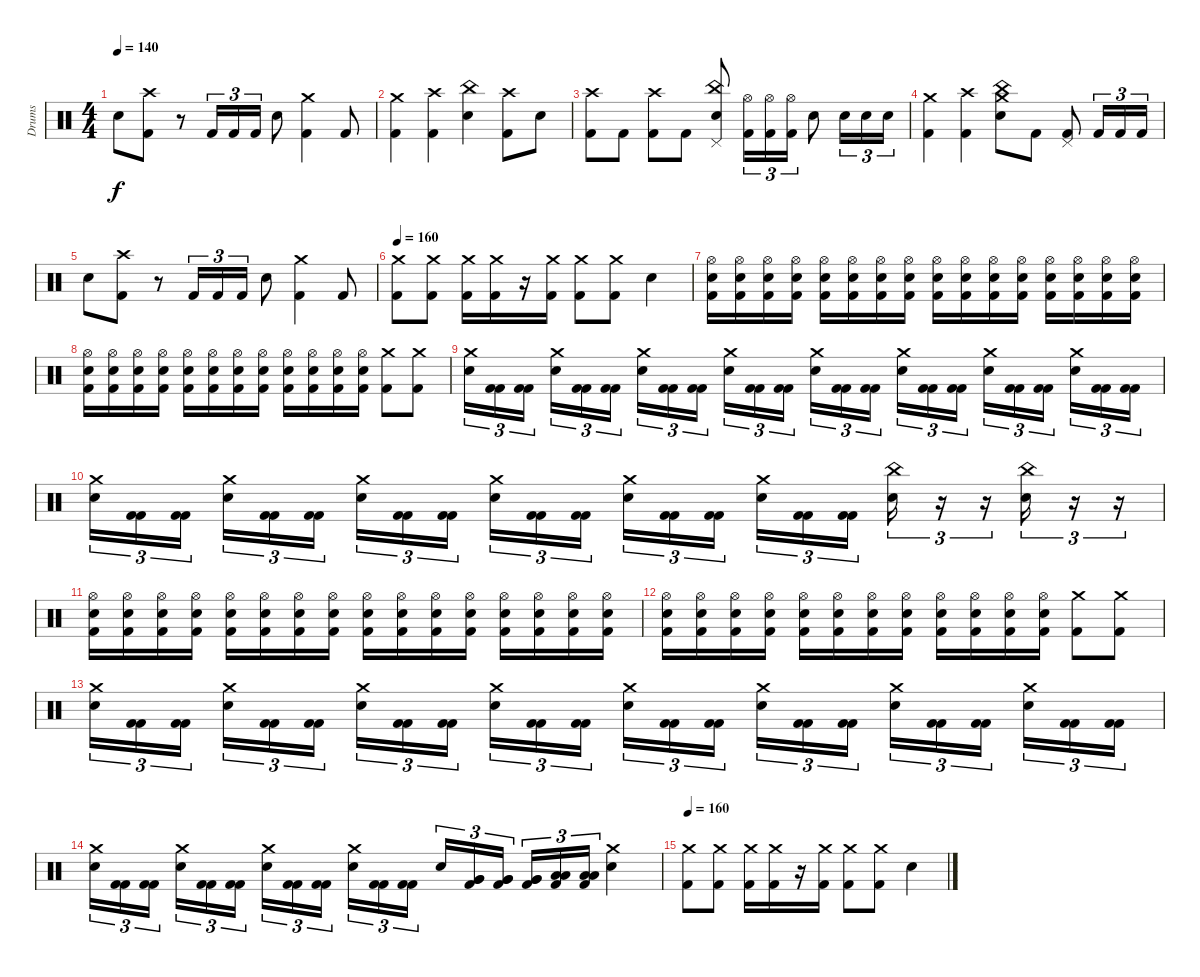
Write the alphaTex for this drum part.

\track ("Drums" "Drums") {instrument percussion}
\staff {score}
\articulation defaults
\ts (4 4)
\tempo 140
\clef neutral
\ks c "Electric Snare (hit)".8{dy f}
("Crash high (hit)" "Kick (hit) 2").8 r.8 "Kick (hit) 2".16{tu (3 2)} "Kick (hit) 2".16{tu (3 2)} "Kick (hit) 2".16{tu (3 2)} "Electric Snare (hit)".8 ("Crash medium (hit)" "Kick (hit) 2").4 "Kick (hit) 2".8 |
("Crash medium (hit)" "Kick (hit) 2").4 ("Crash high (hit)" "Kick (hit) 2").4 ("China (hit)" "Electric Snare (hit)").4 ("Crash high (hit)" "Kick (hit) 2").8 "Electric Snare (hit)".8 |
("Crash high (hit)" "Kick (hit) 2").8 "Kick (hit) 2".8 ("Crash high (hit)" "Kick (hit) 2").8 "Kick (hit) 2".8 ("China (hit)" "Pedal Hi-Hat (hit)" "Electric Snare (hit)").8 ("Hi-Hat (open)" "Kick (hit) 2").16{tu (3 2)} ("Hi-Hat (open)" "Kick (hit) 2").16{tu (3 2)} ("Hi-Hat (open)" "Kick (hit) 2").16{tu (3 2)} "Electric Snare (hit)".8 "Electric Snare (hit)".16{tu (3 2)} "Electric Snare (hit)".16{tu (3 2)} "Electric Snare (hit)".16{tu (3 2)} |
("Crash medium (hit)" "Kick (hit) 2").4 ("Crash high (hit)" "Kick (hit) 2").4 ("Crash medium (hit)" "China (hit)" "Electric Snare (hit)").8 "Kick (hit) 2".8 ("Pedal Hi-Hat (hit)" "Kick (hit) 2").8 "Kick (hit) 2".16{tu (3 2)} "Kick (hit) 2".16{tu (3 2)} "Kick (hit) 2".16{tu (3 2)} |
"Electric Snare (hit)".8 ("Crash high (hit)" "Kick (hit) 2").8 r.8 "Kick (hit) 2".16{tu (3 2)} "Kick (hit) 2".16{tu (3 2)} "Kick (hit) 2".16{tu (3 2)} "Electric Snare (hit)".8 ("Crash medium (hit)" "Kick (hit) 2").4 "Kick (hit) 2".8 |
\tempo 160
("Crash medium (hit)" "Kick (hit) 2").8 ("Crash medium (hit)" "Kick (hit) 2").8 ("Crash medium (hit)" "Kick (hit) 2").16 ("Crash medium (hit)" "Kick (hit) 2").16 r.16 ("Crash medium (hit)" "Kick (hit) 2").16 ("Crash medium (hit)" "Kick (hit) 2").8 ("Crash medium (hit)" "Kick (hit) 2").8 "Electric Snare (hit)".4 |
("Hi-Hat (open)" "Electric Snare (hit)" "Kick (hit) 2").16 ("Hi-Hat (open)" "Electric Snare (hit)" "Kick (hit) 2").16 ("Hi-Hat (open)" "Electric Snare (hit)" "Kick (hit) 2").16 ("Hi-Hat (open)" "Electric Snare (hit)" "Kick (hit) 2").16 ("Hi-Hat (open)" "Electric Snare (hit)" "Kick (hit) 2").16 ("Hi-Hat (open)" "Electric Snare (hit)" "Kick (hit) 2").16 ("Hi-Hat (open)" "Electric Snare (hit)" "Kick (hit) 2").16 ("Hi-Hat (open)" "Electric Snare (hit)" "Kick (hit) 2").16 ("Hi-Hat (open)" "Electric Snare (hit)" "Kick (hit) 2").16 ("Hi-Hat (open)" "Electric Snare (hit)" "Kick (hit) 2").16 ("Hi-Hat (open)" "Electric Snare (hit)" "Kick (hit) 2").16 ("Hi-Hat (open)" "Electric Snare (hit)" "Kick (hit) 2").16 ("Hi-Hat (open)" "Electric Snare (hit)" "Kick (hit) 2").16 ("Hi-Hat (open)" "Electric Snare (hit)" "Kick (hit) 2").16 ("Hi-Hat (open)" "Electric Snare (hit)" "Kick (hit) 2").16 ("Hi-Hat (open)" "Electric Snare (hit)" "Kick (hit) 2").16 |
("Hi-Hat (open)" "Electric Snare (hit)" "Kick (hit) 2").16 ("Hi-Hat (open)" "Electric Snare (hit)" "Kick (hit) 2").16 ("Hi-Hat (open)" "Electric Snare (hit)" "Kick (hit) 2").16 ("Hi-Hat (open)" "Electric Snare (hit)" "Kick (hit) 2").16 ("Hi-Hat (open)" "Electric Snare (hit)" "Kick (hit) 2").16 ("Hi-Hat (open)" "Electric Snare (hit)" "Kick (hit) 2").16 ("Hi-Hat (open)" "Electric Snare (hit)" "Kick (hit) 2").16 ("Hi-Hat (open)" "Electric Snare (hit)" "Kick (hit) 2").16 ("Hi-Hat (open)" "Electric Snare (hit)" "Kick (hit) 2").16 ("Hi-Hat (open)" "Electric Snare (hit)" "Kick (hit) 2").16 ("Hi-Hat (open)" "Electric Snare (hit)" "Kick (hit) 2").16 ("Hi-Hat (open)" "Electric Snare (hit)" "Kick (hit) 2").16 ("Crash medium (hit)" "Kick (hit) 2").8 ("Crash medium (hit)" "Kick (hit) 2").8 |
("Crash medium (hit)" "Electric Snare (hit)").16{tu (3 2)} ("Kick (hit) 2" "Kick (hit) 2").16{tu (3 2)} ("Kick (hit) 2" "Kick (hit) 2").16{tu (3 2) beam splitsecondary} ("Crash medium (hit)" "Electric Snare (hit)").16{tu (3 2)} ("Kick (hit) 2" "Kick (hit) 2").16{tu (3 2)} ("Kick (hit) 2" "Kick (hit) 2").16{tu (3 2)} ("Crash medium (hit)" "Electric Snare (hit)").16{tu (3 2)} ("Kick (hit) 2" "Kick (hit) 2").16{tu (3 2)} ("Kick (hit) 2" "Kick (hit) 2").16{tu (3 2) beam splitsecondary} ("Crash medium (hit)" "Electric Snare (hit)").16{tu (3 2)} ("Kick (hit) 2" "Kick (hit) 2").16{tu (3 2)} ("Kick (hit) 2" "Kick (hit) 2").16{tu (3 2)} ("Crash medium (hit)" "Electric Snare (hit)").16{tu (3 2)} ("Kick (hit) 2" "Kick (hit) 2").16{tu (3 2)} ("Kick (hit) 2" "Kick (hit) 2").16{tu (3 2) beam splitsecondary} ("Crash medium (hit)" "Electric Snare (hit)").16{tu (3 2)} ("Kick (hit) 2" "Kick (hit) 2").16{tu (3 2)} ("Kick (hit) 2" "Kick (hit) 2").16{tu (3 2)} ("Crash medium (hit)" "Electric Snare (hit)").16{tu (3 2)} ("Kick (hit) 2" "Kick (hit) 2").16{tu (3 2)} ("Kick (hit) 2" "Kick (hit) 2").16{tu (3 2) beam splitsecondary} ("Crash medium (hit)" "Electric Snare (hit)").16{tu (3 2)} ("Kick (hit) 2" "Kick (hit) 2").16{tu (3 2)} ("Kick (hit) 2" "Kick (hit) 2").16{tu (3 2)} |
("Crash medium (hit)" "Electric Snare (hit)").16{tu (3 2)} ("Kick (hit) 2" "Kick (hit) 2").16{tu (3 2)} ("Kick (hit) 2" "Kick (hit) 2").16{tu (3 2) beam splitsecondary} ("Crash medium (hit)" "Electric Snare (hit)").16{tu (3 2)} ("Kick (hit) 2" "Kick (hit) 2").16{tu (3 2)} ("Kick (hit) 2" "Kick (hit) 2").16{tu (3 2)} ("Crash medium (hit)" "Electric Snare (hit)").16{tu (3 2)} ("Kick (hit) 2" "Kick (hit) 2").16{tu (3 2)} ("Kick (hit) 2" "Kick (hit) 2").16{tu (3 2) beam splitsecondary} ("Crash medium (hit)" "Electric Snare (hit)").16{tu (3 2)} ("Kick (hit) 2" "Kick (hit) 2").16{tu (3 2)} ("Kick (hit) 2" "Kick (hit) 2").16{tu (3 2)} ("Crash medium (hit)" "Electric Snare (hit)").16{tu (3 2)} ("Kick (hit) 2" "Kick (hit) 2").16{tu (3 2)} ("Kick (hit) 2" "Kick (hit) 2").16{tu (3 2) beam splitsecondary} ("Crash medium (hit)" "Electric Snare (hit)").16{tu (3 2)} ("Kick (hit) 2" "Kick (hit) 2").16{tu (3 2)} ("Kick (hit) 2" "Kick (hit) 2").16{tu (3 2)} ("China (hit)" "Electric Snare (hit)").16{tu (3 2)} r.16{tu (3 2)} r.16{tu (3 2)} ("China (hit)" "Electric Snare (hit)").16{tu (3 2)} r.16{tu (3 2)} r.16{tu (3 2)} |
("Hi-Hat (open)" "Electric Snare (hit)" "Kick (hit) 2").16 ("Hi-Hat (open)" "Electric Snare (hit)" "Kick (hit) 2").16 ("Hi-Hat (open)" "Electric Snare (hit)" "Kick (hit) 2").16 ("Hi-Hat (open)" "Electric Snare (hit)" "Kick (hit) 2").16 ("Hi-Hat (open)" "Electric Snare (hit)" "Kick (hit) 2").16 ("Hi-Hat (open)" "Electric Snare (hit)" "Kick (hit) 2").16 ("Hi-Hat (open)" "Electric Snare (hit)" "Kick (hit) 2").16 ("Hi-Hat (open)" "Electric Snare (hit)" "Kick (hit) 2").16 ("Hi-Hat (open)" "Electric Snare (hit)" "Kick (hit) 2").16 ("Hi-Hat (open)" "Electric Snare (hit)" "Kick (hit) 2").16 ("Hi-Hat (open)" "Electric Snare (hit)" "Kick (hit) 2").16 ("Hi-Hat (open)" "Electric Snare (hit)" "Kick (hit) 2").16 ("Hi-Hat (open)" "Electric Snare (hit)" "Kick (hit) 2").16 ("Hi-Hat (open)" "Electric Snare (hit)" "Kick (hit) 2").16 ("Hi-Hat (open)" "Electric Snare (hit)" "Kick (hit) 2").16 ("Hi-Hat (open)" "Electric Snare (hit)" "Kick (hit) 2").16 |
("Hi-Hat (open)" "Electric Snare (hit)" "Kick (hit) 2").16 ("Hi-Hat (open)" "Electric Snare (hit)" "Kick (hit) 2").16 ("Hi-Hat (open)" "Electric Snare (hit)" "Kick (hit) 2").16 ("Hi-Hat (open)" "Electric Snare (hit)" "Kick (hit) 2").16 ("Hi-Hat (open)" "Electric Snare (hit)" "Kick (hit) 2").16 ("Hi-Hat (open)" "Electric Snare (hit)" "Kick (hit) 2").16 ("Hi-Hat (open)" "Electric Snare (hit)" "Kick (hit) 2").16 ("Hi-Hat (open)" "Electric Snare (hit)" "Kick (hit) 2").16 ("Hi-Hat (open)" "Electric Snare (hit)" "Kick (hit) 2").16 ("Hi-Hat (open)" "Electric Snare (hit)" "Kick (hit) 2").16 ("Hi-Hat (open)" "Electric Snare (hit)" "Kick (hit) 2").16 ("Hi-Hat (open)" "Electric Snare (hit)" "Kick (hit) 2").16 ("Crash medium (hit)" "Kick (hit) 2").8 ("Crash medium (hit)" "Kick (hit) 2").8 |
("Crash medium (hit)" "Electric Snare (hit)").16{tu (3 2)} ("Kick (hit) 2" "Kick (hit) 2").16{tu (3 2)} ("Kick (hit) 2" "Kick (hit) 2").16{tu (3 2) beam splitsecondary} ("Crash medium (hit)" "Electric Snare (hit)").16{tu (3 2)} ("Kick (hit) 2" "Kick (hit) 2").16{tu (3 2)} ("Kick (hit) 2" "Kick (hit) 2").16{tu (3 2)} ("Crash medium (hit)" "Electric Snare (hit)").16{tu (3 2)} ("Kick (hit) 2" "Kick (hit) 2").16{tu (3 2)} ("Kick (hit) 2" "Kick (hit) 2").16{tu (3 2) beam splitsecondary} ("Crash medium (hit)" "Electric Snare (hit)").16{tu (3 2)} ("Kick (hit) 2" "Kick (hit) 2").16{tu (3 2)} ("Kick (hit) 2" "Kick (hit) 2").16{tu (3 2)} ("Crash medium (hit)" "Electric Snare (hit)").16{tu (3 2)} ("Kick (hit) 2" "Kick (hit) 2").16{tu (3 2)} ("Kick (hit) 2" "Kick (hit) 2").16{tu (3 2) beam splitsecondary} ("Crash medium (hit)" "Electric Snare (hit)").16{tu (3 2)} ("Kick (hit) 2" "Kick (hit) 2").16{tu (3 2)} ("Kick (hit) 2" "Kick (hit) 2").16{tu (3 2)} ("Crash medium (hit)" "Electric Snare (hit)").16{tu (3 2)} ("Kick (hit) 2" "Kick (hit) 2").16{tu (3 2)} ("Kick (hit) 2" "Kick (hit) 2").16{tu (3 2) beam splitsecondary} ("Crash medium (hit)" "Electric Snare (hit)").16{tu (3 2)} ("Kick (hit) 2" "Kick (hit) 2").16{tu (3 2)} ("Kick (hit) 2" "Kick (hit) 2").16{tu (3 2)} |
("Crash medium (hit)" "Electric Snare (hit)").16{tu (3 2)} ("Kick (hit) 2" "Kick (hit) 2").16{tu (3 2)} ("Kick (hit) 2" "Kick (hit) 2").16{tu (3 2) beam splitsecondary} ("Crash medium (hit)" "Electric Snare (hit)").16{tu (3 2)} ("Kick (hit) 2" "Kick (hit) 2").16{tu (3 2)} ("Kick (hit) 2" "Kick (hit) 2").16{tu (3 2)} ("Crash medium (hit)" "Electric Snare (hit)").16{tu (3 2)} ("Kick (hit) 2" "Kick (hit) 2").16{tu (3 2)} ("Kick (hit) 2" "Kick (hit) 2").16{tu (3 2) beam splitsecondary} ("Crash medium (hit)" "Electric Snare (hit)").16{tu (3 2)} ("Kick (hit) 2" "Kick (hit) 2").16{tu (3 2)} ("Kick (hit) 2" "Kick (hit) 2").16{tu (3 2)} "Electric Snare (hit)".16{tu (3 2)} ("Very Low Tom (hit)" "Very Low Tom (hit)" "Kick (hit) 2").16{tu (3 2)} ("Very Low Tom (hit)" "Very Low Tom (hit)" "Kick (hit) 2").16{tu (3 2) beam splitsecondary} ("Very Low Tom (hit)" "Very Low Tom (hit)" "Kick (hit) 2").16{tu (3 2)} ("Low Tom (hit)" "Low Tom (hit)" "Kick (hit) 2").16{tu (3 2)} ("Low Tom (hit)" "Low Tom (hit)" "Kick (hit) 2").16{tu (3 2)} ("Crash medium (hit)" "Electric Snare (hit)").4 |
\tempo 160
("Crash medium (hit)" "Kick (hit) 2").8 ("Crash medium (hit)" "Kick (hit) 2").8 ("Crash medium (hit)" "Kick (hit) 2").16 ("Crash medium (hit)" "Kick (hit) 2").16 r.16 ("Crash medium (hit)" "Kick (hit) 2").16 ("Crash medium (hit)" "Kick (hit) 2").8 ("Crash medium (hit)" "Kick (hit) 2").8 "Electric Snare (hit)".4
